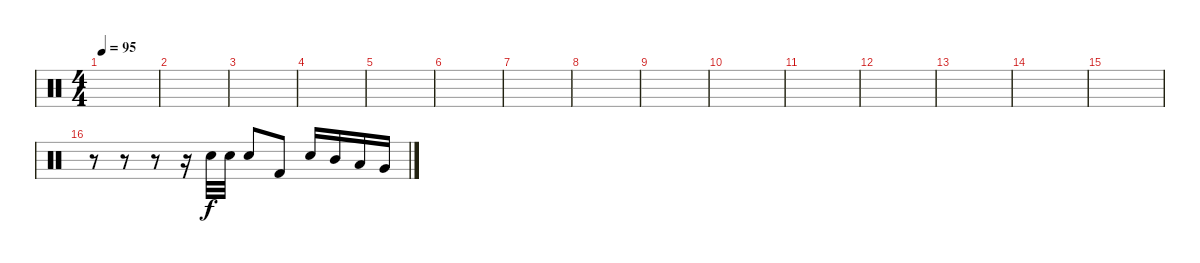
\track "" {instrument percussion}
\staff {score}
\articulation defaults
\ts (4 4)
\tempo 95
\clef neutral
\ks c
|
|
|
|
|
|
|
|
|
|
|
|
|
|
|
r.8 r.8 r.8 r.16 "Electric Snare (hit)".32 "Electric Snare (hit)".32 "Electric Snare (hit)".8 "Kick (hit) 2".8 "Electric Snare (hit)".16 "Mid Tom (hit)".16 "Low Tom (hit)".16 "Very Low Tom (hit)".16
